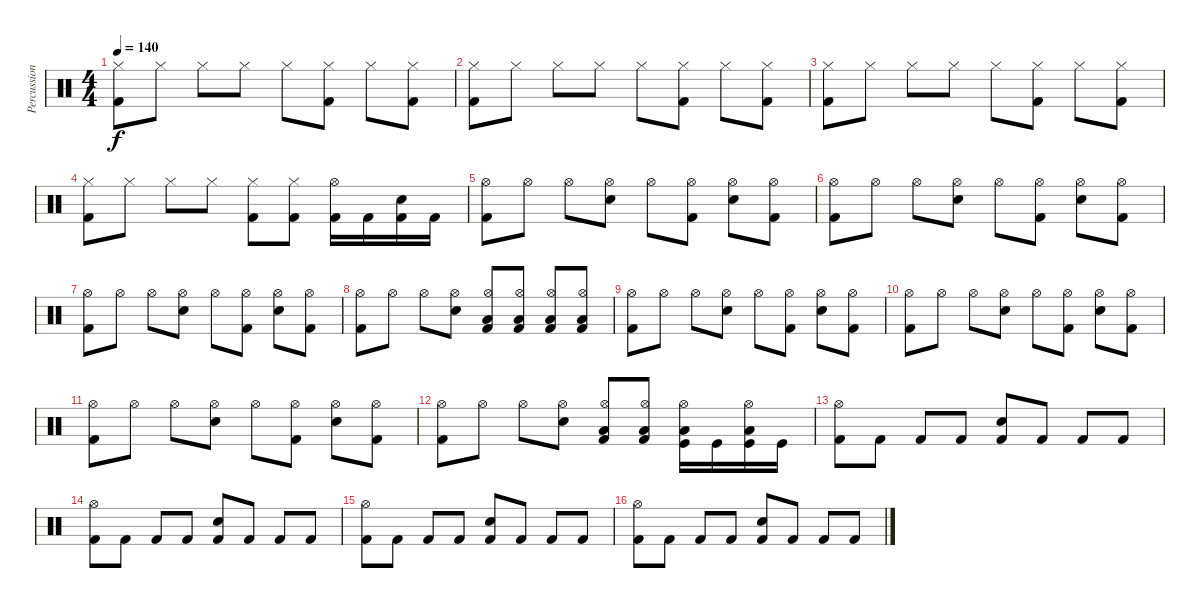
\track ("Percussion" "Percussion") {instrument percussion}
\staff {score}
\articulation defaults
\ts (4 4)
\tempo 140
\clef neutral
\ks c
("Hi-Hat (closed)" "Kick (hit) 2").8{dy f} "Hi-Hat (closed)".8 "Hi-Hat (closed)".8 "Hi-Hat (closed)".8 "Hi-Hat (closed)".8 ("Hi-Hat (closed)" "Kick (hit) 2").8 "Hi-Hat (closed)".8 ("Hi-Hat (closed)" "Kick (hit) 2").8 |
("Hi-Hat (closed)" "Kick (hit) 2").8 "Hi-Hat (closed)".8 "Hi-Hat (closed)".8 "Hi-Hat (closed)".8 "Hi-Hat (closed)".8 ("Hi-Hat (closed)" "Kick (hit) 2").8 "Hi-Hat (closed)".8 ("Hi-Hat (closed)" "Kick (hit) 2").8 |
("Hi-Hat (closed)" "Kick (hit) 2").8 "Hi-Hat (closed)".8 "Hi-Hat (closed)".8 "Hi-Hat (closed)".8 "Hi-Hat (closed)".8 ("Hi-Hat (closed)" "Kick (hit) 2").8 "Hi-Hat (closed)".8 ("Hi-Hat (closed)" "Kick (hit) 2").8 |
("Hi-Hat (closed)" "Kick (hit) 2").8 "Hi-Hat (closed)".8 "Hi-Hat (closed)".8 "Hi-Hat (closed)".8 ("Hi-Hat (closed)" "Kick (hit) 2").8 ("Hi-Hat (closed)" "Kick (hit) 2").8 ("Hi-Hat (open)" "Kick (hit) 2").16 "Kick (hit) 2".16 ("Electric Snare (hit)" "Kick (hit) 2").16 "Kick (hit) 2".16 |
("Hi-Hat (open)" "Kick (hit) 2").8 "Hi-Hat (open)".8 "Hi-Hat (open)".8 ("Hi-Hat (open)" "Electric Snare (hit)").8 "Hi-Hat (open)".8 ("Hi-Hat (open)" "Kick (hit) 2").8 ("Hi-Hat (open)" "Electric Snare (hit)").8 ("Hi-Hat (open)" "Kick (hit) 2").8 |
("Hi-Hat (open)" "Kick (hit) 2").8 "Hi-Hat (open)".8 "Hi-Hat (open)".8 ("Hi-Hat (open)" "Electric Snare (hit)").8 "Hi-Hat (open)".8 ("Hi-Hat (open)" "Kick (hit) 2").8 ("Hi-Hat (open)" "Electric Snare (hit)").8 ("Hi-Hat (open)" "Kick (hit) 2").8 |
("Hi-Hat (open)" "Kick (hit) 2").8 "Hi-Hat (open)".8 "Hi-Hat (open)".8 ("Hi-Hat (open)" "Electric Snare (hit)").8 "Hi-Hat (open)".8 ("Hi-Hat (open)" "Kick (hit) 2").8 ("Hi-Hat (open)" "Electric Snare (hit)").8 ("Hi-Hat (open)" "Kick (hit) 2").8 |
("Hi-Hat (open)" "Kick (hit) 2").8 "Hi-Hat (open)".8 "Hi-Hat (open)".8 ("Hi-Hat (open)" "Electric Snare (hit)").8 ("Hi-Hat (open)" "Low Floor Tom (hit)" "Kick (hit) 2").8 ("Hi-Hat (open)" "Low Floor Tom (hit)" "Kick (hit) 2").8 ("Hi-Hat (open)" "Low Floor Tom (hit)" "Kick (hit) 2").8 ("Hi-Hat (open)" "Low Floor Tom (hit)" "Kick (hit) 2").8 |
("Hi-Hat (open)" "Kick (hit) 2").8 "Hi-Hat (open)".8 "Hi-Hat (open)".8 ("Hi-Hat (open)" "Electric Snare (hit)").8 "Hi-Hat (open)".8 ("Hi-Hat (open)" "Kick (hit) 2").8 ("Hi-Hat (open)" "Electric Snare (hit)").8 ("Hi-Hat (open)" "Kick (hit) 2").8 |
("Hi-Hat (open)" "Kick (hit) 2").8 "Hi-Hat (open)".8 "Hi-Hat (open)".8 ("Hi-Hat (open)" "Electric Snare (hit)").8 "Hi-Hat (open)".8 ("Hi-Hat (open)" "Kick (hit) 2").8 ("Hi-Hat (open)" "Electric Snare (hit)").8 ("Hi-Hat (open)" "Kick (hit) 2").8 |
("Hi-Hat (open)" "Kick (hit) 2").8 "Hi-Hat (open)".8 "Hi-Hat (open)".8 ("Hi-Hat (open)" "Electric Snare (hit)").8 "Hi-Hat (open)".8 ("Hi-Hat (open)" "Kick (hit) 2").8 ("Hi-Hat (open)" "Electric Snare (hit)").8 ("Hi-Hat (open)" "Kick (hit) 2").8 |
("Hi-Hat (open)" "Kick (hit) 2").8 "Hi-Hat (open)".8 "Hi-Hat (open)".8 ("Hi-Hat (open)" "Electric Snare (hit)").8 ("Hi-Hat (open)" "Low Floor Tom (hit)" "Kick (hit) 2").8 ("Hi-Hat (open)" "Low Floor Tom (hit)" "Kick (hit) 2").8 ("Hi-Hat (open)" "Low Floor Tom (hit)" "Kick (hit)").16 "Kick (hit)".16 ("Hi-Hat (open)" "Low Floor Tom (hit)" "Kick (hit)").16 "Kick (hit)".16 |
("Hi-Hat (open)" "Kick (hit) 2").8 "Kick (hit) 2".8 "Kick (hit) 2".8 "Kick (hit) 2".8 ("Electric Snare (hit)" "Kick (hit) 2").8 "Kick (hit) 2".8 "Kick (hit) 2".8 "Kick (hit) 2".8 |
("Hi-Hat (open)" "Kick (hit) 2").8 "Kick (hit) 2".8 "Kick (hit) 2".8 "Kick (hit) 2".8 ("Electric Snare (hit)" "Kick (hit) 2").8 "Kick (hit) 2".8 "Kick (hit) 2".8 "Kick (hit) 2".8 |
("Hi-Hat (open)" "Kick (hit) 2").8 "Kick (hit) 2".8 "Kick (hit) 2".8 "Kick (hit) 2".8 ("Electric Snare (hit)" "Kick (hit) 2").8 "Kick (hit) 2".8 "Kick (hit) 2".8 "Kick (hit) 2".8 |
("Hi-Hat (open)" "Kick (hit) 2").8 "Kick (hit) 2".8 "Kick (hit) 2".8 "Kick (hit) 2".8 ("Electric Snare (hit)" "Kick (hit) 2").8 "Kick (hit) 2".8 "Kick (hit) 2".8 "Kick (hit) 2".8
